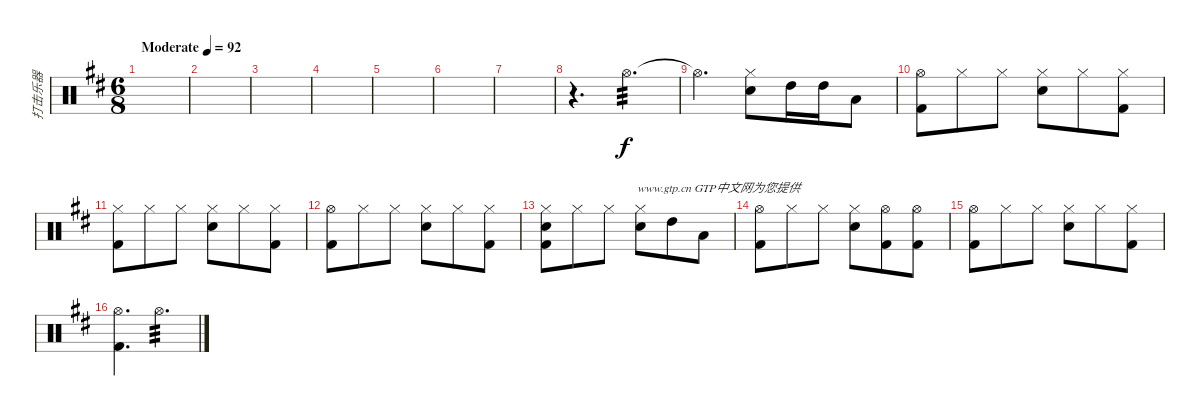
\track ("打击乐器" "打击乐器") {instrument percussion}
\staff {score}
\articulation defaults
\ts (6 8)
\tempo (92 "Moderate")
\clef neutral
\ks d
|
|
|
|
|
|
|
r.4{d} "Hi-Hat (open)".4{d tp 3} |
"Hi-Hat (open)"{t}.4{d} ("Hi-Hat (closed)" "Snare (hit) 2").8 "High Tom (hit)".16 "High Tom (hit)".16 "Low Tom (hit)".8 |
("Hi-Hat (open)" "Kick (hit) 2").8 "Hi-Hat (closed)".8 "Hi-Hat (closed)".8 ("Hi-Hat (closed)" "Snare (hit) 2").8 "Hi-Hat (closed)".8 ("Hi-Hat (closed)" "Kick (hit) 2").8 |
("Hi-Hat (closed)" "Kick (hit) 2").8 "Hi-Hat (closed)".8 "Hi-Hat (closed)".8 ("Hi-Hat (closed)" "Snare (hit) 2").8 "Hi-Hat (closed)".8 ("Hi-Hat (closed)" "Kick (hit) 2").8 |
("Hi-Hat (open)" "Kick (hit) 2").8 "Hi-Hat (closed)".8 "Hi-Hat (closed)".8 ("Hi-Hat (closed)" "Snare (hit) 2").8 "Hi-Hat (closed)".8 ("Hi-Hat (closed)" "Kick (hit) 2").8 |
("Hi-Hat (closed)" "Snare (hit) 2" "Kick (hit) 2").8 "Hi-Hat (closed)".8{txt "                    www.gtp.cn GTP中文网为您提供"} "Hi-Hat (closed)".8 ("Hi-Hat (closed)" "Snare (hit) 2").8 "High Tom (hit)".8 "Low Tom (hit)".8 |
("Hi-Hat (open)" "Kick (hit) 2").8 "Hi-Hat (closed)".8 "Hi-Hat (closed)".8 ("Hi-Hat (closed)" "Snare (hit) 2").8 ("Hi-Hat (open)" "Kick (hit) 2").8 ("Hi-Hat (open)" "Kick (hit) 2").8 |
("Hi-Hat (open)" "Kick (hit) 2").8 "Hi-Hat (closed)".8 "Hi-Hat (closed)".8 ("Hi-Hat (closed)" "Snare (hit) 2").8 "Hi-Hat (closed)".8 ("Hi-Hat (closed)" "Kick (hit) 2").8 |
("Hi-Hat (open)" "Kick (hit) 2").4{d} "Hi-Hat (open)".4{d tp 3}
